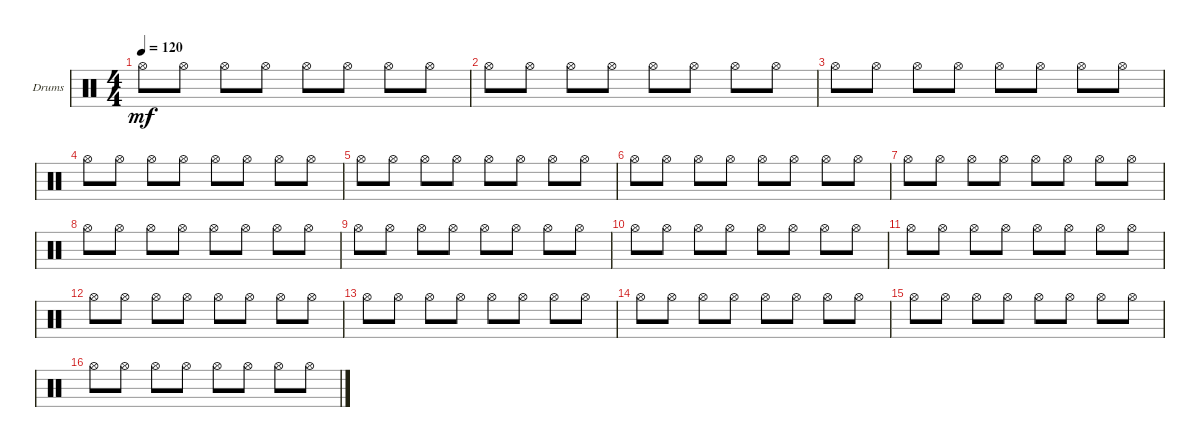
\defaultSystemsLayout 4
\bracketExtendMode groupsimilarinstruments
\firstSystemTrackNameOrientation horizontal
\otherSystemsTrackNameOrientation horizontal
\track ("Drumkit" "Drums") {instrument percussion}
\staff {score}
\articulation defaults
\ts (4 4)
\tempo 120
\clef neutral
\ks c "Hi-Hat (open)".8{dy mf} "Hi-Hat (open)".8 "Hi-Hat (open)".8 "Hi-Hat (open)".8 "Hi-Hat (open)".8 "Hi-Hat (open)".8 "Hi-Hat (open)".8 "Hi-Hat (open)".8
|
"Hi-Hat (open)".8 "Hi-Hat (open)".8 "Hi-Hat (open)".8 "Hi-Hat (open)".8 "Hi-Hat (open)".8 "Hi-Hat (open)".8 "Hi-Hat (open)".8 "Hi-Hat (open)".8 |
"Hi-Hat (open)".8 "Hi-Hat (open)".8 "Hi-Hat (open)".8 "Hi-Hat (open)".8 "Hi-Hat (open)".8 "Hi-Hat (open)".8 "Hi-Hat (open)".8 "Hi-Hat (open)".8 |
"Hi-Hat (open)".8 "Hi-Hat (open)".8 "Hi-Hat (open)".8 "Hi-Hat (open)".8 "Hi-Hat (open)".8 "Hi-Hat (open)".8 "Hi-Hat (open)".8 "Hi-Hat (open)".8 |
"Hi-Hat (open)".8 "Hi-Hat (open)".8 "Hi-Hat (open)".8 "Hi-Hat (open)".8 "Hi-Hat (open)".8 "Hi-Hat (open)".8 "Hi-Hat (open)".8 "Hi-Hat (open)".8 |
"Hi-Hat (open)".8 "Hi-Hat (open)".8 "Hi-Hat (open)".8 "Hi-Hat (open)".8 "Hi-Hat (open)".8 "Hi-Hat (open)".8 "Hi-Hat (open)".8 "Hi-Hat (open)".8 |
"Hi-Hat (open)".8 "Hi-Hat (open)".8 "Hi-Hat (open)".8 "Hi-Hat (open)".8 "Hi-Hat (open)".8 "Hi-Hat (open)".8 "Hi-Hat (open)".8 "Hi-Hat (open)".8 |
"Hi-Hat (open)".8 "Hi-Hat (open)".8 "Hi-Hat (open)".8 "Hi-Hat (open)".8 "Hi-Hat (open)".8 "Hi-Hat (open)".8 "Hi-Hat (open)".8 "Hi-Hat (open)".8 |
"Hi-Hat (open)".8 "Hi-Hat (open)".8 "Hi-Hat (open)".8 "Hi-Hat (open)".8 "Hi-Hat (open)".8 "Hi-Hat (open)".8 "Hi-Hat (open)".8 "Hi-Hat (open)".8 |
"Hi-Hat (open)".8 "Hi-Hat (open)".8 "Hi-Hat (open)".8 "Hi-Hat (open)".8 "Hi-Hat (open)".8 "Hi-Hat (open)".8 "Hi-Hat (open)".8 "Hi-Hat (open)".8 |
"Hi-Hat (open)".8 "Hi-Hat (open)".8 "Hi-Hat (open)".8 "Hi-Hat (open)".8 "Hi-Hat (open)".8 "Hi-Hat (open)".8 "Hi-Hat (open)".8 "Hi-Hat (open)".8 |
"Hi-Hat (open)".8 "Hi-Hat (open)".8 "Hi-Hat (open)".8 "Hi-Hat (open)".8 "Hi-Hat (open)".8 "Hi-Hat (open)".8 "Hi-Hat (open)".8 "Hi-Hat (open)".8 |
"Hi-Hat (open)".8 "Hi-Hat (open)".8 "Hi-Hat (open)".8 "Hi-Hat (open)".8 "Hi-Hat (open)".8 "Hi-Hat (open)".8 "Hi-Hat (open)".8 "Hi-Hat (open)".8 |
"Hi-Hat (open)".8 "Hi-Hat (open)".8 "Hi-Hat (open)".8 "Hi-Hat (open)".8 "Hi-Hat (open)".8 "Hi-Hat (open)".8 "Hi-Hat (open)".8 "Hi-Hat (open)".8 |
"Hi-Hat (open)".8 "Hi-Hat (open)".8 "Hi-Hat (open)".8 "Hi-Hat (open)".8 "Hi-Hat (open)".8 "Hi-Hat (open)".8 "Hi-Hat (open)".8 "Hi-Hat (open)".8 |
"Hi-Hat (open)".8 "Hi-Hat (open)".8 "Hi-Hat (open)".8 "Hi-Hat (open)".8 "Hi-Hat (open)".8 "Hi-Hat (open)".8 "Hi-Hat (open)".8 "Hi-Hat (open)".8
